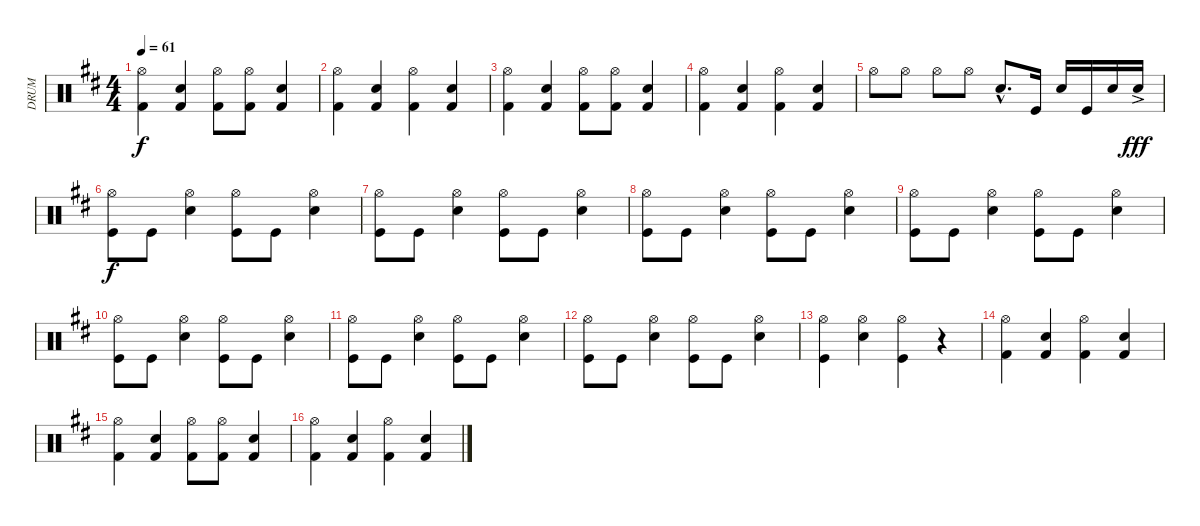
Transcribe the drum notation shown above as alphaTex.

\track ("DRUM" "DRUM") {instrument percussion}
\staff {score}
\articulation defaults
\ts (4 4)
\tempo 61
\clef neutral
\ks d
("Hi-Hat (open)" "Kick (hit) 2").4{dy f} ("Electric Snare (hit)" "Kick (hit) 2").4 ("Hi-Hat (open)" "Kick (hit) 2").8 ("Hi-Hat (open)" "Kick (hit) 2").8 ("Snare (hit) 2" "Kick (hit) 2").4 |
("Hi-Hat (open)" "Kick (hit) 2").4 ("Electric Snare (hit)" "Kick (hit) 2").4 ("Hi-Hat (open)" "Kick (hit) 2").4 ("Snare (hit) 2" "Kick (hit) 2").4 |
("Hi-Hat (open)" "Kick (hit) 2").4 ("Electric Snare (hit)" "Kick (hit) 2").4 ("Hi-Hat (open)" "Kick (hit) 2").8 ("Hi-Hat (open)" "Kick (hit) 2").8 ("Snare (hit) 2" "Kick (hit) 2").4 |
("Hi-Hat (open)" "Kick (hit) 2").4 ("Electric Snare (hit)" "Kick (hit) 2").4 ("Hi-Hat (open)" "Kick (hit) 2").4 ("Snare (hit) 2" "Kick (hit) 2").4 |
"Hi-Hat (open)".8 "Hi-Hat (open)".8 "Hi-Hat (open)".8 "Hi-Hat (open)".8 "Electric Snare (hit)"{hac}.8{d} "Kick (hit)".16 "Electric Snare (hit)".16 "Kick (hit)".16 "Electric Snare (hit)".16 "Electric Snare (hit)"{ac}.16{dy fff} |
("Hi-Hat (open)" "Kick (hit)").8{dy f} "Kick (hit)".8 ("Hi-Hat (open)" "Electric Snare (hit)").4 ("Hi-Hat (open)" "Kick (hit)").8 "Kick (hit)".8 ("Hi-Hat (open)" "Electric Snare (hit)").4 |
("Hi-Hat (open)" "Kick (hit)").8 "Kick (hit)".8 ("Hi-Hat (open)" "Electric Snare (hit)").4 ("Hi-Hat (open)" "Kick (hit)").8 "Kick (hit)".8 ("Hi-Hat (open)" "Electric Snare (hit)").4 |
("Hi-Hat (open)" "Kick (hit)").8 "Kick (hit)".8 ("Hi-Hat (open)" "Electric Snare (hit)").4 ("Hi-Hat (open)" "Kick (hit)").8 "Kick (hit)".8 ("Hi-Hat (open)" "Electric Snare (hit)").4 |
("Hi-Hat (open)" "Kick (hit)").8 "Kick (hit)".8 ("Hi-Hat (open)" "Electric Snare (hit)").4 ("Hi-Hat (open)" "Kick (hit)").8 "Kick (hit)".8 ("Hi-Hat (open)" "Electric Snare (hit)").4 |
("Hi-Hat (open)" "Kick (hit)").8 "Kick (hit)".8 ("Hi-Hat (open)" "Electric Snare (hit)").4 ("Hi-Hat (open)" "Kick (hit)").8 "Kick (hit)".8 ("Hi-Hat (open)" "Electric Snare (hit)").4 |
("Hi-Hat (open)" "Kick (hit)").8 "Kick (hit)".8 ("Hi-Hat (open)" "Electric Snare (hit)").4 ("Hi-Hat (open)" "Kick (hit)").8 "Kick (hit)".8 ("Hi-Hat (open)" "Electric Snare (hit)").4 |
("Hi-Hat (open)" "Kick (hit)").8 "Kick (hit)".8 ("Hi-Hat (open)" "Electric Snare (hit)").4 ("Hi-Hat (open)" "Kick (hit)").8 "Kick (hit)".8 ("Hi-Hat (open)" "Electric Snare (hit)").4 |
("Hi-Hat (open)" "Kick (hit)").4 ("Hi-Hat (open)" "Electric Snare (hit)").4 ("Hi-Hat (open)" "Kick (hit)").4 r.4 |
("Hi-Hat (open)" "Kick (hit) 2").4 ("Electric Snare (hit)" "Kick (hit) 2").4 ("Hi-Hat (open)" "Kick (hit) 2").4 ("Snare (hit) 2" "Kick (hit) 2").4 |
("Hi-Hat (open)" "Kick (hit) 2").4 ("Electric Snare (hit)" "Kick (hit) 2").4 ("Hi-Hat (open)" "Kick (hit) 2").8 ("Hi-Hat (open)" "Kick (hit) 2").8 ("Snare (hit) 2" "Kick (hit) 2").4 |
("Hi-Hat (open)" "Kick (hit) 2").4 ("Electric Snare (hit)" "Kick (hit) 2").4 ("Hi-Hat (open)" "Kick (hit) 2").4 ("Snare (hit) 2" "Kick (hit) 2").4
